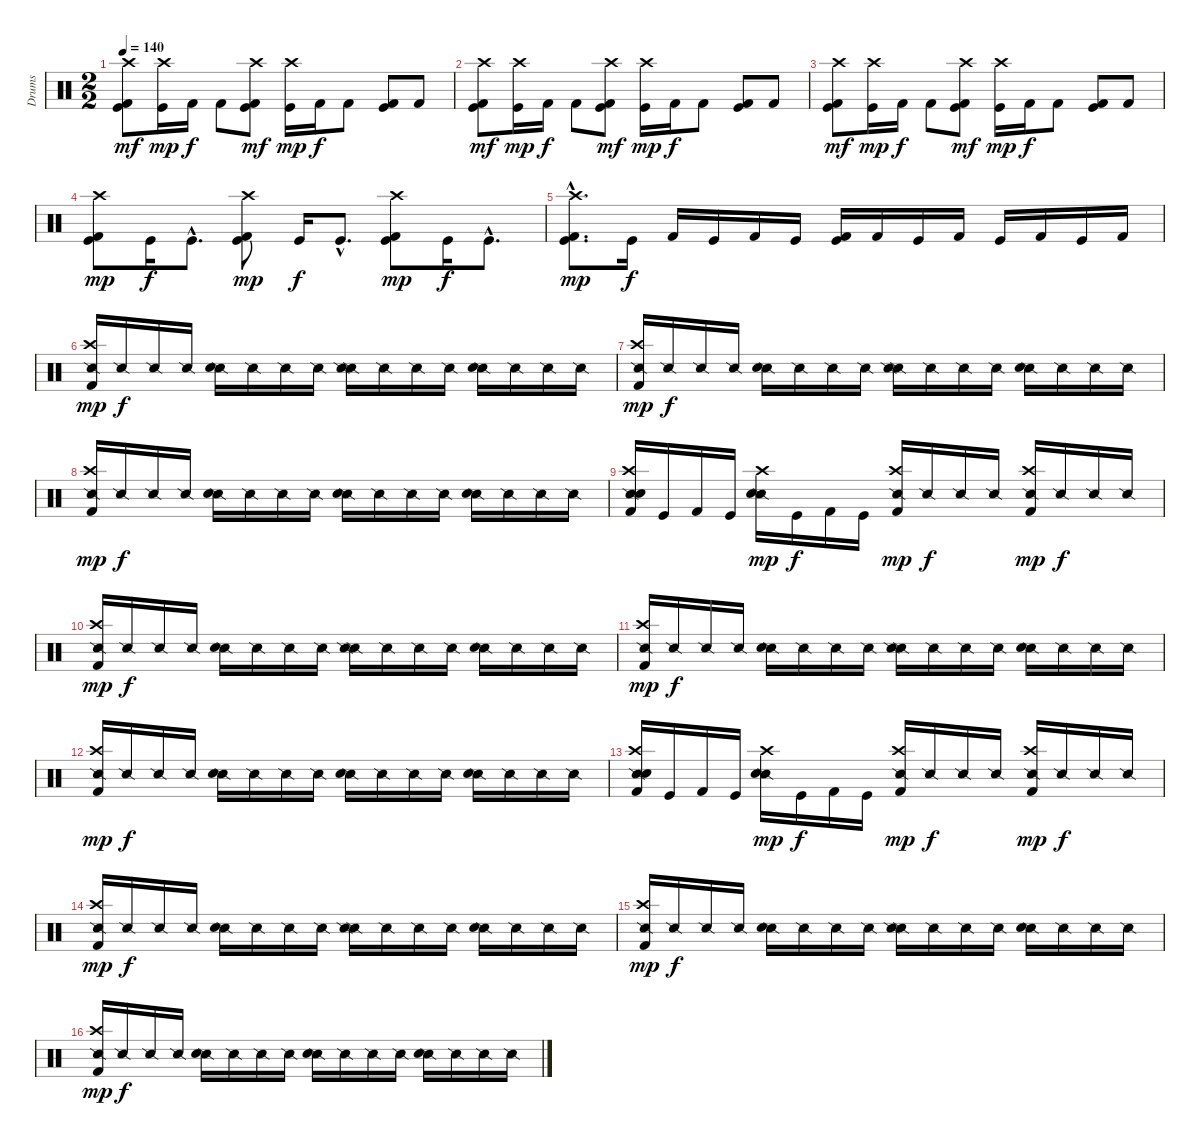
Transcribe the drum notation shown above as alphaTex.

\track ("Drums" "Drums") {instrument percussion}
\staff {score}
\articulation defaults
\ts (2 2)
\tempo 140
\clef neutral
\ks c
("Kick (hit)" "Kick (hit) 2" "Crash high (hit)").8{dy mf} ("Kick (hit)" "Crash high (hit)").16{dy mp} "Kick (hit) 2".16{dy f} "Kick (hit) 2".8 ("Kick (hit)" "Kick (hit) 2" "Crash high (hit)").8{dy mf} ("Kick (hit)" "Crash high (hit)").16{dy mp} "Kick (hit) 2".16{dy f} "Kick (hit) 2".8 ("Kick (hit)" "Kick (hit) 2").8 "Kick (hit) 2".8 |
("Kick (hit)" "Kick (hit) 2" "Crash high (hit)").8{dy mf} ("Kick (hit)" "Crash high (hit)").16{dy mp} "Kick (hit) 2".16{dy f} "Kick (hit) 2".8 ("Kick (hit)" "Kick (hit) 2" "Crash high (hit)").8{dy mf} ("Kick (hit)" "Crash high (hit)").16{dy mp} "Kick (hit) 2".16{dy f} "Kick (hit) 2".8 ("Kick (hit)" "Kick (hit) 2").8 "Kick (hit) 2".8 |
("Kick (hit)" "Kick (hit) 2" "Crash high (hit)").8{dy mf} ("Kick (hit)" "Crash high (hit)").16{dy mp} "Kick (hit) 2".16{dy f} "Kick (hit) 2".8 ("Kick (hit)" "Kick (hit) 2" "Crash high (hit)").8{dy mf} ("Kick (hit)" "Crash high (hit)").16{dy mp} "Kick (hit) 2".16{dy f} "Kick (hit) 2".8 ("Kick (hit)" "Kick (hit) 2").8 "Kick (hit) 2".8 |
("Kick (hit) 2" "Kick (hit)" "Crash high (hit)").8{dy mp} "Kick (hit)".16{dy f} "Kick (hit)"{hac}.8{d} ("Kick (hit) 2" "Kick (hit)" "Crash high (hit)").8{dy mp} "Kick (hit)".16{dy f} "Kick (hit)"{hac}.8{d} ("Kick (hit) 2" "Kick (hit)" "Crash high (hit)").8{dy mp} "Kick (hit)".16{dy f} "Kick (hit)"{hac}.8{d} |
("Kick (hit) 2"{hac} "Kick (hit)"{hac} "Crash high (hit)"{hac}).8{d dy mp} "Kick (hit)".16{dy f} "Kick (hit) 2".16 "Kick (hit)".16 "Kick (hit) 2".16 "Kick (hit)".16 ("Kick (hit)" "Kick (hit) 2").16 "Kick (hit) 2".16 "Kick (hit)".16 "Kick (hit) 2".16 "Kick (hit)".16 "Kick (hit) 2".16 "Kick (hit)".16 "Kick (hit) 2".16 |
("Snare (side stick) 2" "Kick (hit) 2" "Crash high (hit)").16{dy mp} "Snare (side stick) 2".16{dy f} "Snare (side stick) 2".16 "Snare (side stick) 2".16 ("Snare (side stick) 2" "Snare (hit) 2").16 "Snare (side stick) 2".16 "Snare (side stick) 2".16 "Snare (side stick) 2".16 ("Snare (side stick) 2" "Snare (side stick) 2").16 "Snare (side stick) 2".16 "Snare (side stick) 2".16 "Snare (side stick) 2".16 ("Snare (side stick) 2" "Snare (hit) 2").16 "Snare (side stick) 2".16 "Snare (side stick) 2".16 "Snare (side stick) 2".16 |
("Snare (side stick) 2" "Kick (hit) 2" "Crash high (hit)").16{dy mp} "Snare (side stick) 2".16{dy f} "Snare (side stick) 2".16 "Snare (side stick) 2".16 ("Snare (side stick) 2" "Snare (hit) 2").16 "Snare (side stick) 2".16 "Snare (side stick) 2".16 "Snare (side stick) 2".16 ("Snare (side stick) 2" "Snare (side stick) 2").16 "Snare (side stick) 2".16 "Snare (side stick) 2".16 "Snare (side stick) 2".16 ("Snare (side stick) 2" "Snare (hit) 2").16 "Snare (side stick) 2".16 "Snare (side stick) 2".16 "Snare (side stick) 2".16 |
("Snare (side stick) 2" "Kick (hit) 2" "Crash high (hit)").16{dy mp} "Snare (side stick) 2".16{dy f} "Snare (side stick) 2".16 "Snare (side stick) 2".16 ("Snare (side stick) 2" "Snare (hit) 2").16 "Snare (side stick) 2".16 "Snare (side stick) 2".16 "Snare (side stick) 2".16 ("Snare (side stick) 2" "Snare (hit) 2").16 "Snare (side stick) 2".16 "Snare (side stick) 2".16 "Snare (side stick) 2".16 ("Snare (side stick) 2" "Snare (hit) 2").16 "Snare (side stick) 2".16 "Snare (side stick) 2".16 "Snare (side stick) 2".16 |
("Snare (side stick) 2" "Snare (hit) 2" "Kick (hit) 2" "Crash high (hit)").16 "Kick (hit)".16 "Kick (hit) 2".16 "Kick (hit)".16 ("Snare (side stick) 2" "Snare (hit) 2" "Crash high (hit)").16{dy mp} "Kick (hit)".16{dy f} "Kick (hit) 2".16 "Kick (hit)".16 ("Snare (side stick) 2" "Kick (hit) 2" "Crash high (hit)").16{dy mp} "Snare (side stick) 2".16{dy f} "Snare (side stick) 2".16 "Snare (side stick) 2".16 ("Snare (side stick) 2" "Kick (hit) 2" "Crash high (hit)").16{dy mp} "Snare (side stick) 2".16{dy f} "Snare (side stick) 2".16 "Snare (side stick) 2".16 |
("Snare (side stick) 2" "Kick (hit) 2" "Crash high (hit)").16{dy mp} "Snare (side stick) 2".16{dy f} "Snare (side stick) 2".16 "Snare (side stick) 2".16 ("Snare (side stick) 2" "Snare (hit) 2").16 "Snare (side stick) 2".16 "Snare (side stick) 2".16 "Snare (side stick) 2".16 ("Snare (side stick) 2" "Snare (side stick) 2").16 "Snare (side stick) 2".16 "Snare (side stick) 2".16 "Snare (side stick) 2".16 ("Snare (side stick) 2" "Snare (hit) 2").16 "Snare (side stick) 2".16 "Snare (side stick) 2".16 "Snare (side stick) 2".16 |
("Snare (side stick) 2" "Kick (hit) 2" "Crash high (hit)").16{dy mp} "Snare (side stick) 2".16{dy f} "Snare (side stick) 2".16 "Snare (side stick) 2".16 ("Snare (side stick) 2" "Snare (hit) 2").16 "Snare (side stick) 2".16 "Snare (side stick) 2".16 "Snare (side stick) 2".16 ("Snare (side stick) 2" "Snare (side stick) 2").16 "Snare (side stick) 2".16 "Snare (side stick) 2".16 "Snare (side stick) 2".16 ("Snare (side stick) 2" "Snare (hit) 2").16 "Snare (side stick) 2".16 "Snare (side stick) 2".16 "Snare (side stick) 2".16 |
("Snare (side stick) 2" "Kick (hit) 2" "Crash high (hit)").16{dy mp} "Snare (side stick) 2".16{dy f} "Snare (side stick) 2".16 "Snare (side stick) 2".16 ("Snare (side stick) 2" "Snare (hit) 2").16 "Snare (side stick) 2".16 "Snare (side stick) 2".16 "Snare (side stick) 2".16 ("Snare (side stick) 2" "Snare (hit) 2").16 "Snare (side stick) 2".16 "Snare (side stick) 2".16 "Snare (side stick) 2".16 ("Snare (side stick) 2" "Snare (hit) 2").16 "Snare (side stick) 2".16 "Snare (side stick) 2".16 "Snare (side stick) 2".16 |
("Snare (side stick) 2" "Snare (hit) 2" "Kick (hit) 2" "Crash high (hit)").16 "Kick (hit)".16 "Kick (hit) 2".16 "Kick (hit)".16 ("Snare (side stick) 2" "Snare (hit) 2" "Crash high (hit)").16{dy mp} "Kick (hit)".16{dy f} "Kick (hit) 2".16 "Kick (hit)".16 ("Snare (side stick) 2" "Kick (hit) 2" "Crash high (hit)").16{dy mp} "Snare (side stick) 2".16{dy f} "Snare (side stick) 2".16 "Snare (side stick) 2".16 ("Snare (side stick) 2" "Kick (hit) 2" "Crash high (hit)").16{dy mp} "Snare (side stick) 2".16{dy f} "Snare (side stick) 2".16 "Snare (side stick) 2".16 |
("Snare (side stick) 2" "Kick (hit) 2" "Crash high (hit)").16{dy mp} "Snare (side stick) 2".16{dy f} "Snare (side stick) 2".16 "Snare (side stick) 2".16 ("Snare (side stick) 2" "Snare (hit) 2").16 "Snare (side stick) 2".16 "Snare (side stick) 2".16 "Snare (side stick) 2".16 ("Snare (side stick) 2" "Snare (side stick) 2").16 "Snare (side stick) 2".16 "Snare (side stick) 2".16 "Snare (side stick) 2".16 ("Snare (side stick) 2" "Snare (hit) 2").16 "Snare (side stick) 2".16 "Snare (side stick) 2".16 "Snare (side stick) 2".16 |
("Snare (side stick) 2" "Kick (hit) 2" "Crash high (hit)").16{dy mp} "Snare (side stick) 2".16{dy f} "Snare (side stick) 2".16 "Snare (side stick) 2".16 ("Snare (side stick) 2" "Snare (hit) 2").16 "Snare (side stick) 2".16 "Snare (side stick) 2".16 "Snare (side stick) 2".16 ("Snare (side stick) 2" "Snare (side stick) 2").16 "Snare (side stick) 2".16 "Snare (side stick) 2".16 "Snare (side stick) 2".16 ("Snare (side stick) 2" "Snare (hit) 2").16 "Snare (side stick) 2".16 "Snare (side stick) 2".16 "Snare (side stick) 2".16 |
("Snare (side stick) 2" "Kick (hit) 2" "Crash high (hit)").16{dy mp} "Snare (side stick) 2".16{dy f} "Snare (side stick) 2".16 "Snare (side stick) 2".16 ("Snare (side stick) 2" "Snare (hit) 2").16 "Snare (side stick) 2".16 "Snare (side stick) 2".16 "Snare (side stick) 2".16 ("Snare (side stick) 2" "Snare (hit) 2").16 "Snare (side stick) 2".16 "Snare (side stick) 2".16 "Snare (side stick) 2".16 ("Snare (side stick) 2" "Snare (hit) 2").16 "Snare (side stick) 2".16 "Snare (side stick) 2".16 "Snare (side stick) 2".16
